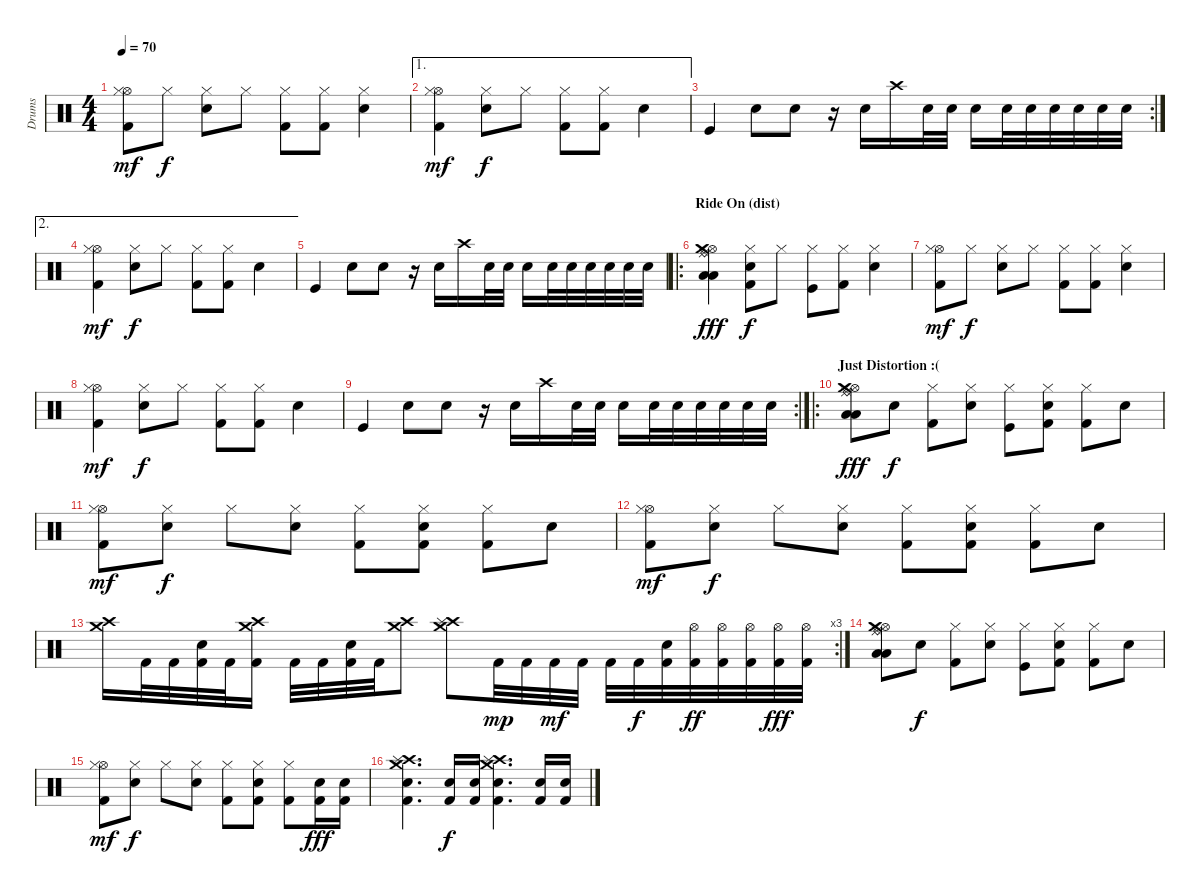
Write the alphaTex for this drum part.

\track ("Drums" "Drums") {instrument percussion}
\staff {score}
\articulation defaults
\ts (4 4)
\tempo 70
\clef neutral
\ks c
("Kick (hit) 2" "Hi-Hat (open)" "Hi-Hat (closed)").8{dy mf} "Hi-Hat (closed)".8{dy f} ("Snare (hit) 2" "Hi-Hat (closed)").8 "Hi-Hat (closed)".8 ("Kick (hit) 2" "Hi-Hat (closed)").8 ("Kick (hit) 2" "Hi-Hat (closed)").8 ("Snare (hit) 2" "Hi-Hat (closed)").4 |
\ae 1
("Kick (hit) 2" "Hi-Hat (open)" "Hi-Hat (closed)").4{dy mf} ("Snare (hit) 2" "Hi-Hat (closed)").8{dy f} "Hi-Hat (closed)".8 ("Kick (hit) 2" "Hi-Hat (closed)").8 ("Kick (hit) 2" "Hi-Hat (closed)").8 "Snare (hit) 2".4 |
\rc 2 "Kick (hit)".4 "Snare (hit) 2".8 "Snare (hit) 2".8
r.16 "Snare (hit) 2".16 "Crash high (hit)".16 "Snare (hit) 2".32 "Snare (hit) 2".32 "Snare (hit) 2".16 "Snare (hit) 2".32 "Snare (hit) 2".32 "Snare (hit) 2".32 "Snare (hit) 2".32 "Snare (hit) 2".32 "Snare (hit) 2".32 |
\ae 2
("Kick (hit) 2" "Hi-Hat (open)" "Hi-Hat (closed)").4{dy mf} ("Snare (hit) 2" "Hi-Hat (closed)").8{dy f} "Hi-Hat (closed)".8 ("Kick (hit) 2" "Hi-Hat (closed)").8 ("Kick (hit) 2" "Hi-Hat (closed)").8 "Snare (hit) 2".4 |
"Kick (hit)".4 "Snare (hit) 2".8 "Snare (hit) 2".8 r.16 "Snare (hit) 2".16 "Crash high (hit)".16 "Snare (hit) 2".32 "Snare (hit) 2".32 "Snare (hit) 2".16 "Snare (hit) 2".32 "Snare (hit) 2".32 "Snare (hit) 2".32 "Snare (hit) 2".32 "Snare (hit) 2".32 "Snare (hit) 2".32 |
\ro
\section ("" "Ride On (dist)")
("Hi-Hat (open)" "Ride (middle)" "Ride (bell)" "Low Tom (hit)" "Crash medium (hit)" "Low Tom (hit)").4{dy fff} ("Kick (hit) 2" "Snare (hit) 2" "Hi-Hat (closed)").8{dy f} "Hi-Hat (closed)".8 ("Kick (hit)" "Hi-Hat (closed)").8 ("Kick (hit) 2" "Hi-Hat (closed)").8 ("Snare (hit) 2" "Hi-Hat (closed)").4 |
("Kick (hit) 2" "Hi-Hat (open)" "Hi-Hat (closed)").8{dy mf} "Hi-Hat (closed)".8{dy f} ("Snare (hit) 2" "Hi-Hat (closed)").8 "Hi-Hat (closed)".8 ("Kick (hit) 2" "Hi-Hat (closed)").8 ("Kick (hit) 2" "Hi-Hat (closed)").8 ("Snare (hit) 2" "Hi-Hat (closed)").4 |
("Kick (hit) 2" "Hi-Hat (open)" "Hi-Hat (closed)").4{dy mf} ("Snare (hit) 2" "Hi-Hat (closed)").8{dy f} "Hi-Hat (closed)".8 ("Kick (hit) 2" "Hi-Hat (closed)").8 ("Kick (hit) 2" "Hi-Hat (closed)").8 "Snare (hit) 2".4 |
\rc 2 "Kick (hit)".4 "Snare (hit) 2".8 "Snare (hit) 2".8
r.16 "Snare (hit) 2".16 "Crash high (hit)".16 "Snare (hit) 2".32 "Snare (hit) 2".32 "Snare (hit) 2".16 "Snare (hit) 2".32 "Snare (hit) 2".32 "Snare (hit) 2".32 "Snare (hit) 2".32 "Snare (hit) 2".32 "Snare (hit) 2".32 |
\ro
\section ("" "Just Distortion :(")
("Hi-Hat (open)" "Ride (middle)" "Ride (bell)" "Low Tom (hit)" "Crash medium (hit)" "Low Tom (hit)").8{dy fff} "Snare (hit) 2".8{dy f} ("Kick (hit) 2" "Hi-Hat (closed)").8 ("Snare (hit) 2" "Hi-Hat (closed)").8 ("Kick (hit)" "Hi-Hat (closed)").8 ("Kick (hit) 2" "Snare (hit) 2" "Hi-Hat (closed)").8 ("Kick (hit) 2" "Hi-Hat (closed)").8 "Snare (hit) 2".8 |
("Kick (hit) 2" "Hi-Hat (open)" "Hi-Hat (closed)").8{dy mf} ("Snare (hit) 2" "Hi-Hat (closed)").8{dy f} "Hi-Hat (closed)".8 ("Snare (hit) 2" "Hi-Hat (closed)").8 ("Kick (hit) 2" "Hi-Hat (closed)").8 ("Kick (hit) 2" "Snare (hit) 2" "Hi-Hat (closed)").8 ("Kick (hit) 2" "Hi-Hat (closed)").8 "Snare (hit) 2".8 |
("Kick (hit) 2" "Hi-Hat (open)" "Hi-Hat (closed)").8{dy mf} ("Snare (hit) 2" "Hi-Hat (closed)").8{dy f} "Hi-Hat (closed)".8 ("Snare (hit) 2" "Hi-Hat (closed)").8 ("Kick (hit) 2" "Hi-Hat (closed)").8 ("Kick (hit) 2" "Snare (hit) 2" "Hi-Hat (closed)").8 ("Kick (hit) 2" "Hi-Hat (closed)").8 "Snare (hit) 2".8 |
\rc 3
("Crash high (hit)" "Crash medium (hit)").16 "Kick (hit) 2".32 "Kick (hit) 2".32 ("Kick (hit) 2" "Snare (hit) 2").32 "Kick (hit) 2".32 ("Crash high (hit)" "Crash medium (hit)" "Kick (hit) 2").16 "Kick (hit) 2".32 "Kick (hit) 2".32 ("Kick (hit) 2" "Snare (hit) 2").32 "Kick (hit) 2".32 ("Crash high (hit)" "Crash medium (hit)").8 ("Crash high (hit)" "Crash medium (hit)" "Splash (hit)").8 "Kick (hit) 2".32{dy mp} "Kick (hit) 2".32 "Kick (hit) 2".32{dy mf} "Kick (hit) 2".32 "Kick (hit) 2".32 "Kick (hit) 2".32{dy f} ("Kick (hit) 2" "Snare (hit) 2").32 ("Hi-Hat (open)" "Kick (hit) 2").32{dy ff} ("Hi-Hat (open)" "Kick (hit) 2").32 ("Hi-Hat (open)" "Kick (hit) 2").32 ("Hi-Hat (open)" "Kick (hit) 2").32{dy fff} ("Hi-Hat (open)" "Kick (hit) 2").32 |
("Hi-Hat (open)" "Ride (middle)" "Ride (bell)" "Low Tom (hit)" "Crash medium (hit)" "Low Tom (hit)").8 "Snare (hit) 2".8{dy f} ("Kick (hit) 2" "Hi-Hat (closed)").8 ("Snare (hit) 2" "Hi-Hat (closed)").8 ("Kick (hit)" "Hi-Hat (closed)").8 ("Kick (hit) 2" "Snare (hit) 2" "Hi-Hat (closed)").8 ("Kick (hit) 2" "Hi-Hat (closed)").8 "Snare (hit) 2".8 |
("Kick (hit) 2" "Hi-Hat (open)" "Hi-Hat (closed)").8{dy mf} ("Snare (hit) 2" "Hi-Hat (closed)").8{dy f} "Hi-Hat (closed)".8 ("Snare (hit) 2" "Hi-Hat (closed)").8 ("Kick (hit) 2" "Hi-Hat (closed)").8 ("Kick (hit) 2" "Snare (hit) 2" "Hi-Hat (closed)").8 ("Kick (hit) 2" "Hi-Hat (closed)").8 ("Kick (hit) 2" "Snare (hit) 2").16{dy fff} ("Kick (hit) 2" "Snare (hit) 2").16 |
("Crash high (hit)" "Splash (hit)" "Crash medium (hit)" "Kick (hit) 2" "Snare (hit) 2").4{d} ("Kick (hit) 2" "Snare (hit) 2").16{dy f} ("Kick (hit) 2" "Snare (hit) 2").16 ("Crash high (hit)" "Splash (hit)" "Crash medium (hit)" "Kick (hit) 2" "Snare (hit) 2").4{d} ("Kick (hit) 2" "Snare (hit) 2").16 ("Kick (hit) 2" "Snare (hit) 2").16
